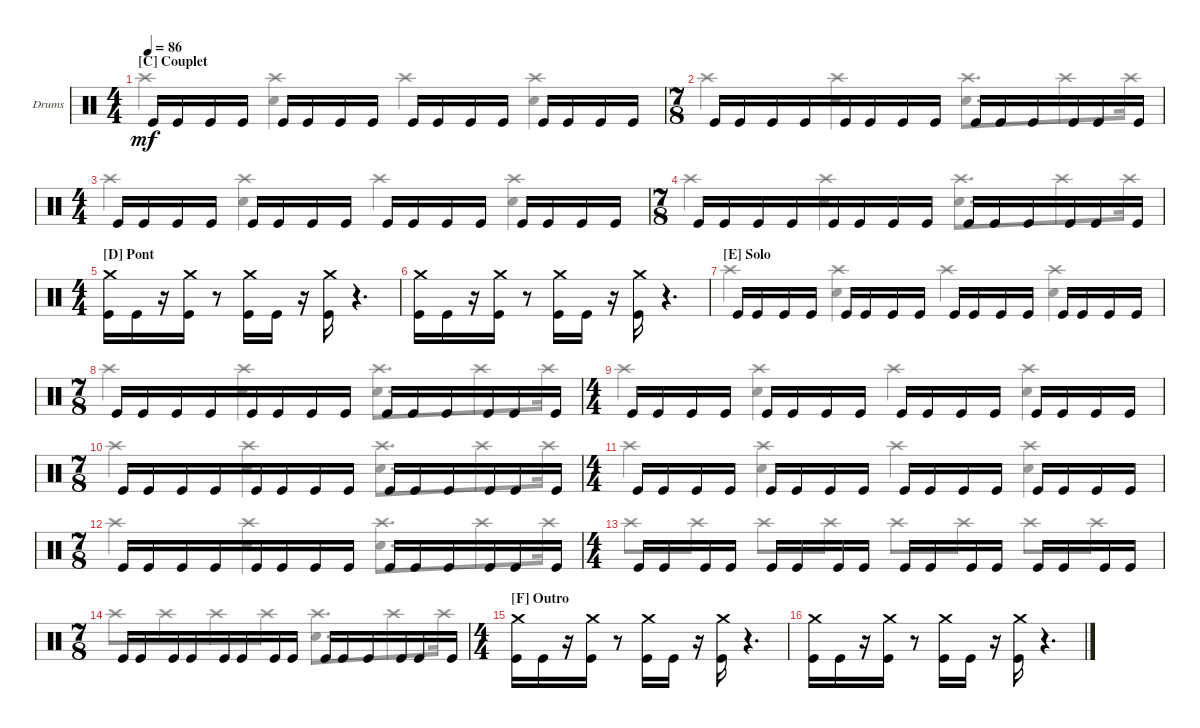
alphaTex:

\defaultSystemsLayout 4
\bracketExtendMode groupsimilarinstruments
\firstSystemTrackNameOrientation horizontal
\otherSystemsTrackNameOrientation horizontal
\track ("Drumkit" "Drums") {instrument percussion}
\staff {score}
\articulation defaults
\voice
\ts (4 4)
\section ("C" "Couplet")
\tempo 86
\clef neutral
\ks c "Kick (hit)".16{dy mf} "Kick (hit)".16 "Kick (hit)".16 "Kick (hit)".16 "Kick (hit)".16 "Kick (hit)".16 "Kick (hit)".16 "Kick (hit)".16 "Kick (hit)".16 "Kick (hit)".16 "Kick (hit)".16 "Kick (hit)".16 "Kick (hit)".16 "Kick (hit)".16 "Kick (hit)".16 "Kick (hit)".16
|
\ts (7 8)
"Kick (hit)".16 "Kick (hit)".16 "Kick (hit)".16 "Kick (hit)".16 "Kick (hit)".16 "Kick (hit)".16 "Kick (hit)".16 "Kick (hit)".16 "Kick (hit)".16 "Kick (hit)".16 "Kick (hit)".16 "Kick (hit)".16 "Kick (hit)".16 "Kick (hit)".16 |
\ts (4 4)
"Kick (hit)".16 "Kick (hit)".16 "Kick (hit)".16 "Kick (hit)".16 "Kick (hit)".16 "Kick (hit)".16 "Kick (hit)".16 "Kick (hit)".16 "Kick (hit)".16 "Kick (hit)".16 "Kick (hit)".16 "Kick (hit)".16 "Kick (hit)".16 "Kick (hit)".16 "Kick (hit)".16 "Kick (hit)".16 |
\ts (7 8)
"Kick (hit)".16 "Kick (hit)".16 "Kick (hit)".16 "Kick (hit)".16 "Kick (hit)".16 "Kick (hit)".16 "Kick (hit)".16 "Kick (hit)".16 "Kick (hit)".16 "Kick (hit)".16 "Kick (hit)".16 "Kick (hit)".16 "Kick (hit)".16 "Kick (hit)".16 |
\ts (4 4)
\section ("D" "Pont")
("Kick (hit)" "Crash medium (hit)").16 "Kick (hit)".16 r.16 ("Kick (hit)" "Crash medium (hit)").16 r.8 ("Kick (hit)" "Crash medium (hit)").16 "Kick (hit)".16 r.16 ("Kick (hit)" "Crash medium (hit)").16 r.4{d} |
("Kick (hit)" "Crash medium (hit)").16 "Kick (hit)".16 r.16 ("Kick (hit)" "Crash medium (hit)").16 r.8 ("Kick (hit)" "Crash medium (hit)").16 "Kick (hit)".16 r.16 ("Kick (hit)" "Crash medium (hit)").16 r.4{d} |
\section ("E" "Solo")
"Kick (hit)".16 "Kick (hit)".16 "Kick (hit)".16 "Kick (hit)".16 "Kick (hit)".16 "Kick (hit)".16 "Kick (hit)".16 "Kick (hit)".16 "Kick (hit)".16 "Kick (hit)".16 "Kick (hit)".16 "Kick (hit)".16 "Kick (hit)".16 "Kick (hit)".16 "Kick (hit)".16 "Kick (hit)".16 |
\ts (7 8)
"Kick (hit)".16 "Kick (hit)".16 "Kick (hit)".16 "Kick (hit)".16 "Kick (hit)".16 "Kick (hit)".16 "Kick (hit)".16 "Kick (hit)".16 "Kick (hit)".16 "Kick (hit)".16 "Kick (hit)".16 "Kick (hit)".16 "Kick (hit)".16 "Kick (hit)".16 |
\ts (4 4)
"Kick (hit)".16 "Kick (hit)".16 "Kick (hit)".16 "Kick (hit)".16 "Kick (hit)".16 "Kick (hit)".16 "Kick (hit)".16 "Kick (hit)".16 "Kick (hit)".16 "Kick (hit)".16 "Kick (hit)".16 "Kick (hit)".16 "Kick (hit)".16 "Kick (hit)".16 "Kick (hit)".16 "Kick (hit)".16 |
\ts (7 8)
"Kick (hit)".16 "Kick (hit)".16 "Kick (hit)".16 "Kick (hit)".16 "Kick (hit)".16 "Kick (hit)".16 "Kick (hit)".16 "Kick (hit)".16 "Kick (hit)".16 "Kick (hit)".16 "Kick (hit)".16 "Kick (hit)".16 "Kick (hit)".16 "Kick (hit)".16 |
\ts (4 4)
"Kick (hit)".16 "Kick (hit)".16 "Kick (hit)".16 "Kick (hit)".16 "Kick (hit)".16 "Kick (hit)".16 "Kick (hit)".16 "Kick (hit)".16 "Kick (hit)".16 "Kick (hit)".16 "Kick (hit)".16 "Kick (hit)".16 "Kick (hit)".16 "Kick (hit)".16 "Kick (hit)".16 "Kick (hit)".16 |
\ts (7 8)
"Kick (hit)".16 "Kick (hit)".16 "Kick (hit)".16 "Kick (hit)".16 "Kick (hit)".16 "Kick (hit)".16 "Kick (hit)".16 "Kick (hit)".16 "Kick (hit)".16 "Kick (hit)".16 "Kick (hit)".16 "Kick (hit)".16 "Kick (hit)".16 "Kick (hit)".16 |
\ts (4 4)
"Kick (hit)".16 "Kick (hit)".16 "Kick (hit)".16 "Kick (hit)".16 "Kick (hit)".16 "Kick (hit)".16 "Kick (hit)".16 "Kick (hit)".16 "Kick (hit)".16 "Kick (hit)".16 "Kick (hit)".16 "Kick (hit)".16 "Kick (hit)".16 "Kick (hit)".16 "Kick (hit)".16 "Kick (hit)".16 |
\ts (7 8)
"Kick (hit)".16 "Kick (hit)".16 "Kick (hit)".16 "Kick (hit)".16 "Kick (hit)".16 "Kick (hit)".16 "Kick (hit)".16 "Kick (hit)".16 "Kick (hit)".16 "Kick (hit)".16 "Kick (hit)".16 "Kick (hit)".16 "Kick (hit)".16 "Kick (hit)".16 |
\ts (4 4)
\section ("F" "Outro")
("Kick (hit)" "Crash medium (hit)").16 "Kick (hit)".16 r.16 ("Kick (hit)" "Crash medium (hit)").16 r.8 ("Kick (hit)" "Crash medium (hit)").16 "Kick (hit)".16 r.16 ("Kick (hit)" "Crash medium (hit)").16 r.4{d} |
("Kick (hit)" "Crash medium (hit)").16 "Kick (hit)".16 r.16 ("Kick (hit)" "Crash medium (hit)").16 r.8 ("Kick (hit)" "Crash medium (hit)").16 "Kick (hit)".16 r.16 ("Kick (hit)" "Crash medium (hit)").16 r.4{d}
\voice
\clef neutral
\ottava regular
\simile none
\ks c "Crash high (hit)".4{dy mf}
("Crash high (hit)" "Snare (hit) 2").4 "Crash high (hit)".4 ("Crash high (hit)" "Snare (hit) 2").4 |
"Crash high (hit)".4 ("Crash high (hit)" "Snare (hit) 2").4 ("Crash high (hit)" "Snare (hit) 2").8{d} "Crash high (hit)".8 "Crash high (hit)".16 |
"Crash high (hit)".4 ("Crash high (hit)" "Snare (hit) 2").4 "Crash high (hit)".4 ("Crash high (hit)" "Snare (hit) 2").4 |
"Crash high (hit)".4 ("Crash high (hit)" "Snare (hit) 2").4 ("Crash high (hit)" "Snare (hit) 2").8{d} "Crash high (hit)".8 "Crash high (hit)".16 |
|
|
"Crash high (hit)".4 ("Crash high (hit)" "Snare (hit) 2").4 "Crash high (hit)".4 ("Crash high (hit)" "Snare (hit) 2").4 |
"Crash high (hit)".4 ("Crash high (hit)" "Snare (hit) 2").4 ("Crash high (hit)" "Snare (hit) 2").8{d} "Crash high (hit)".8 "Crash high (hit)".16 |
"Crash high (hit)".4 ("Crash high (hit)" "Snare (hit) 2").4 "Crash high (hit)".4 ("Crash high (hit)" "Snare (hit) 2").4 |
"Crash high (hit)".4 ("Crash high (hit)" "Snare (hit) 2").4 ("Crash high (hit)" "Snare (hit) 2").8{d} "Crash high (hit)".8 "Crash high (hit)".16 |
"Crash high (hit)".4 ("Crash high (hit)" "Snare (hit) 2").4 "Crash high (hit)".4 ("Crash high (hit)" "Snare (hit) 2").4 |
"Crash high (hit)".4 ("Crash high (hit)" "Snare (hit) 2").4 ("Crash high (hit)" "Snare (hit) 2").8{d} "Crash high (hit)".8 "Crash high (hit)".16 |
"Crash high (hit)".8 "Crash high (hit)".8 "Crash high (hit)".8 "Crash high (hit)".8 "Crash high (hit)".8 "Crash high (hit)".8 "Crash high (hit)".8 "Crash high (hit)".8 |
"Crash high (hit)".8 "Crash high (hit)".8 "Crash high (hit)".8 "Crash high (hit)".8 ("Crash high (hit)" "Snare (hit) 2").8{d} "Crash high (hit)".8 "Crash high (hit)".16 |
|
